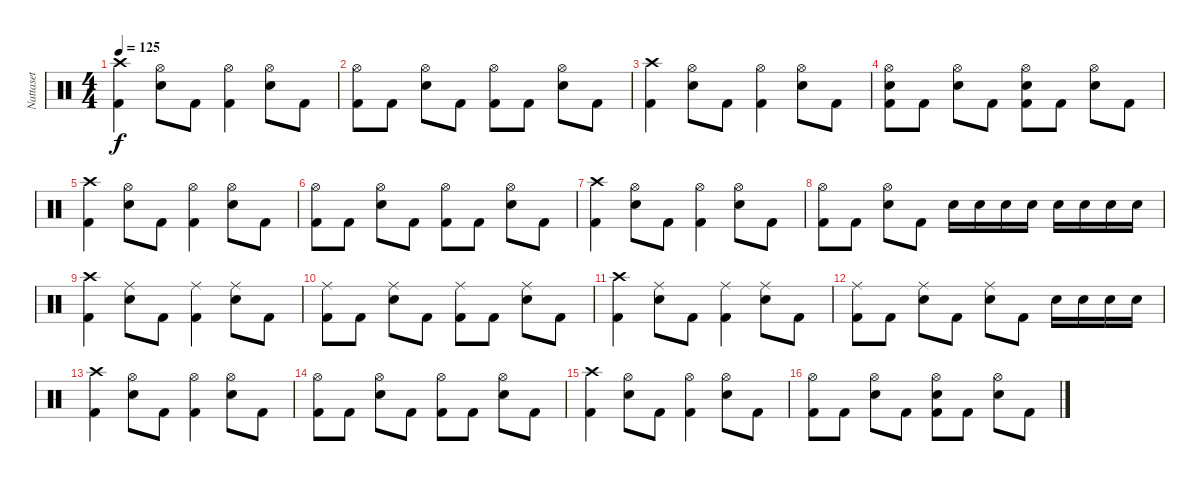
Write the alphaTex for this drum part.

\track ("Nattaset" "Nattaset") {instrument percussion}
\staff {score}
\articulation defaults
\ts (4 4)
\tempo 125
\clef neutral
\ks c
("Kick (hit) 2" "Crash high (hit)").4{dy f} ("Snare (hit) 2" "Hi-Hat (open)").8 "Kick (hit) 2".8 ("Kick (hit) 2" "Hi-Hat (open)").4 ("Snare (hit) 2" "Hi-Hat (open)").8 "Kick (hit) 2".8 |
("Kick (hit) 2" "Hi-Hat (open)").8 "Kick (hit) 2".8 ("Snare (hit) 2" "Hi-Hat (open)").8 "Kick (hit) 2".8 ("Kick (hit) 2" "Hi-Hat (open)").8 "Kick (hit) 2".8 ("Snare (hit) 2" "Hi-Hat (open)").8 "Kick (hit) 2".8 |
("Kick (hit) 2" "Crash high (hit)").4 ("Snare (hit) 2" "Hi-Hat (open)").8 "Kick (hit) 2".8 ("Kick (hit) 2" "Hi-Hat (open)").4 ("Snare (hit) 2" "Hi-Hat (open)").8 "Kick (hit) 2".8 |
("Kick (hit) 2" "Snare (hit) 2" "Hi-Hat (open)").8 "Kick (hit) 2".8 ("Snare (hit) 2" "Hi-Hat (open)").8 "Kick (hit) 2".8 ("Kick (hit) 2" "Snare (hit) 2" "Hi-Hat (open)").8 "Kick (hit) 2".8 ("Snare (hit) 2" "Hi-Hat (open)").8 "Kick (hit) 2".8 |
("Kick (hit) 2" "Crash high (hit)").4 ("Snare (hit) 2" "Hi-Hat (open)").8 "Kick (hit) 2".8 ("Kick (hit) 2" "Hi-Hat (open)").4 ("Snare (hit) 2" "Hi-Hat (open)").8 "Kick (hit) 2".8 |
("Kick (hit) 2" "Hi-Hat (open)").8 "Kick (hit) 2".8 ("Snare (hit) 2" "Hi-Hat (open)").8 "Kick (hit) 2".8 ("Kick (hit) 2" "Hi-Hat (open)").8 "Kick (hit) 2".8 ("Snare (hit) 2" "Hi-Hat (open)").8 "Kick (hit) 2".8 |
("Kick (hit) 2" "Crash high (hit)").4 ("Snare (hit) 2" "Hi-Hat (open)").8 "Kick (hit) 2".8 ("Kick (hit) 2" "Hi-Hat (open)").4 ("Snare (hit) 2" "Hi-Hat (open)").8 "Kick (hit) 2".8 |
("Kick (hit) 2" "Hi-Hat (open)").8 "Kick (hit) 2".8 ("Snare (hit) 2" "Hi-Hat (open)").8 "Kick (hit) 2".8 "Snare (hit) 2".16 "Snare (hit) 2".16 "Snare (hit) 2".16 "Snare (hit) 2".16 "Snare (hit) 2".16 "Snare (hit) 2".16 "Snare (hit) 2".16 "Snare (hit) 2".16 |
("Kick (hit) 2" "Crash high (hit)").4 ("Snare (hit) 2" "Ride (middle)").8 "Kick (hit) 2".8 ("Kick (hit) 2" "Ride (middle)").4 ("Snare (hit) 2" "Ride (middle)").8 "Kick (hit) 2".8 |
("Kick (hit) 2" "Ride (middle)").8 "Kick (hit) 2".8 ("Snare (hit) 2" "Ride (middle)").8 "Kick (hit) 2".8 ("Kick (hit) 2" "Ride (middle)").8 "Kick (hit) 2".8 ("Snare (hit) 2" "Ride (middle)").8 "Kick (hit) 2".8 |
("Kick (hit) 2" "Crash high (hit)").4 ("Snare (hit) 2" "Ride (middle)").8 "Kick (hit) 2".8 ("Kick (hit) 2" "Ride (middle)").4 ("Snare (hit) 2" "Ride (middle)").8 "Kick (hit) 2".8 |
("Kick (hit) 2" "Ride (middle)").8 "Kick (hit) 2".8 ("Snare (hit) 2" "Ride (middle)").8 "Kick (hit) 2".8 ("Snare (hit) 2" "Ride (middle)").8 "Kick (hit) 2".8 "Snare (hit) 2".16 "Snare (hit) 2".16 "Snare (hit) 2".16 "Snare (hit) 2".16 |
("Kick (hit) 2" "Crash high (hit)").4 ("Snare (hit) 2" "Hi-Hat (open)").8 "Kick (hit) 2".8 ("Kick (hit) 2" "Hi-Hat (open)").4 ("Snare (hit) 2" "Hi-Hat (open)").8 "Kick (hit) 2".8 |
("Kick (hit) 2" "Hi-Hat (open)").8 "Kick (hit) 2".8 ("Snare (hit) 2" "Hi-Hat (open)").8 "Kick (hit) 2".8 ("Kick (hit) 2" "Hi-Hat (open)").8 "Kick (hit) 2".8 ("Snare (hit) 2" "Hi-Hat (open)").8 "Kick (hit) 2".8 |
("Kick (hit) 2" "Crash high (hit)").4 ("Snare (hit) 2" "Hi-Hat (open)").8 "Kick (hit) 2".8 ("Kick (hit) 2" "Hi-Hat (open)").4 ("Snare (hit) 2" "Hi-Hat (open)").8 "Kick (hit) 2".8 |
("Kick (hit) 2" "Hi-Hat (open)").8 "Kick (hit) 2".8 ("Snare (hit) 2" "Hi-Hat (open)").8 "Kick (hit) 2".8 ("Kick (hit) 2" "Snare (hit) 2" "Hi-Hat (open)").8 "Kick (hit) 2".8 ("Snare (hit) 2" "Hi-Hat (open)").8 "Kick (hit) 2".8
